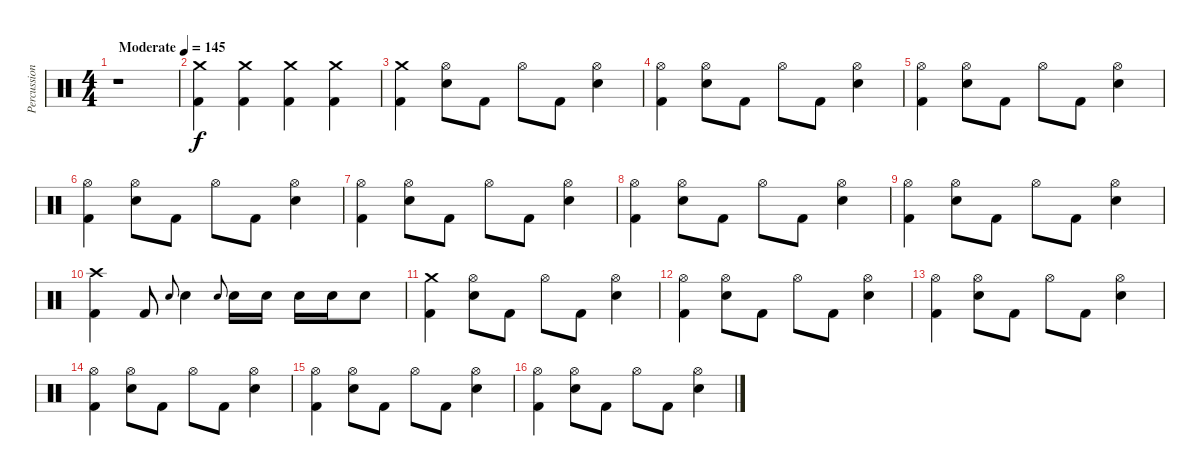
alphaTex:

\track ("Percussion" "Percussion") {instrument percussion}
\staff {score}
\articulation defaults
\ts (4 4)
\tempo (145 "Moderate")
\clef neutral
\ks c
r.1{dy f} |
("Kick (hit) 2" "Crash medium (hit)").4 ("Kick (hit) 2" "Crash medium (hit)").4 ("Kick (hit) 2" "Crash medium (hit)").4 ("Kick (hit) 2" "Crash medium (hit)").4 |
("Kick (hit) 2" "Crash medium (hit)").4 ("Electric Snare (hit)" "Hi-Hat (open)").8 "Kick (hit) 2".8 "Hi-Hat (open)".8 "Kick (hit) 2".8 ("Electric Snare (hit)" "Hi-Hat (open)").4 |
("Kick (hit) 2" "Hi-Hat (open)").4 ("Electric Snare (hit)" "Hi-Hat (open)").8 "Kick (hit) 2".8 "Hi-Hat (open)".8 "Kick (hit) 2".8 ("Electric Snare (hit)" "Hi-Hat (open)").4 |
("Kick (hit) 2" "Hi-Hat (open)").4 ("Electric Snare (hit)" "Hi-Hat (open)").8 "Kick (hit) 2".8 "Hi-Hat (open)".8 "Kick (hit) 2".8 ("Electric Snare (hit)" "Hi-Hat (open)").4 |
("Kick (hit) 2" "Hi-Hat (open)").4 ("Electric Snare (hit)" "Hi-Hat (open)").8 "Kick (hit) 2".8 "Hi-Hat (open)".8 "Kick (hit) 2".8 ("Electric Snare (hit)" "Hi-Hat (open)").4 |
("Kick (hit) 2" "Hi-Hat (open)").4 ("Electric Snare (hit)" "Hi-Hat (open)").8 "Kick (hit) 2".8 "Hi-Hat (open)".8 "Kick (hit) 2".8 ("Electric Snare (hit)" "Hi-Hat (open)").4 |
("Kick (hit) 2" "Hi-Hat (open)").4 ("Electric Snare (hit)" "Hi-Hat (open)").8 "Kick (hit) 2".8 "Hi-Hat (open)".8 "Kick (hit) 2".8 ("Electric Snare (hit)" "Hi-Hat (open)").4 |
("Kick (hit) 2" "Hi-Hat (open)").4 ("Electric Snare (hit)" "Hi-Hat (open)").8 "Kick (hit) 2".8 "Hi-Hat (open)".8 "Kick (hit) 2".8 ("Electric Snare (hit)" "Hi-Hat (open)").4 |
("Kick (hit) 2" "Crash high (hit)").4 "Kick (hit) 2".8 "Electric Snare (hit)".8{gr onbeat} "Electric Snare (hit)".4 "Electric Snare (hit)".8{gr onbeat} "Electric Snare (hit)".16 "Electric Snare (hit)".16 "Electric Snare (hit)".16 "Electric Snare (hit)".16 "Electric Snare (hit)".8 |
("Kick (hit) 2" "Crash medium (hit)").4 ("Electric Snare (hit)" "Hi-Hat (open)").8 "Kick (hit) 2".8 "Hi-Hat (open)".8 "Kick (hit) 2".8 ("Electric Snare (hit)" "Hi-Hat (open)").4 |
("Kick (hit) 2" "Hi-Hat (open)").4 ("Electric Snare (hit)" "Hi-Hat (open)").8 "Kick (hit) 2".8 "Hi-Hat (open)".8 "Kick (hit) 2".8 ("Electric Snare (hit)" "Hi-Hat (open)").4 |
("Kick (hit) 2" "Hi-Hat (open)").4 ("Electric Snare (hit)" "Hi-Hat (open)").8 "Kick (hit) 2".8 "Hi-Hat (open)".8 "Kick (hit) 2".8 ("Electric Snare (hit)" "Hi-Hat (open)").4 |
("Kick (hit) 2" "Hi-Hat (open)").4 ("Electric Snare (hit)" "Hi-Hat (open)").8 "Kick (hit) 2".8 "Hi-Hat (open)".8 "Kick (hit) 2".8 ("Electric Snare (hit)" "Hi-Hat (open)").4 |
("Kick (hit) 2" "Hi-Hat (open)").4 ("Electric Snare (hit)" "Hi-Hat (open)").8 "Kick (hit) 2".8 "Hi-Hat (open)".8 "Kick (hit) 2".8 ("Electric Snare (hit)" "Hi-Hat (open)").4 |
("Kick (hit) 2" "Hi-Hat (open)").4 ("Electric Snare (hit)" "Hi-Hat (open)").8 "Kick (hit) 2".8 "Hi-Hat (open)".8 "Kick (hit) 2".8 ("Electric Snare (hit)" "Hi-Hat (open)").4
